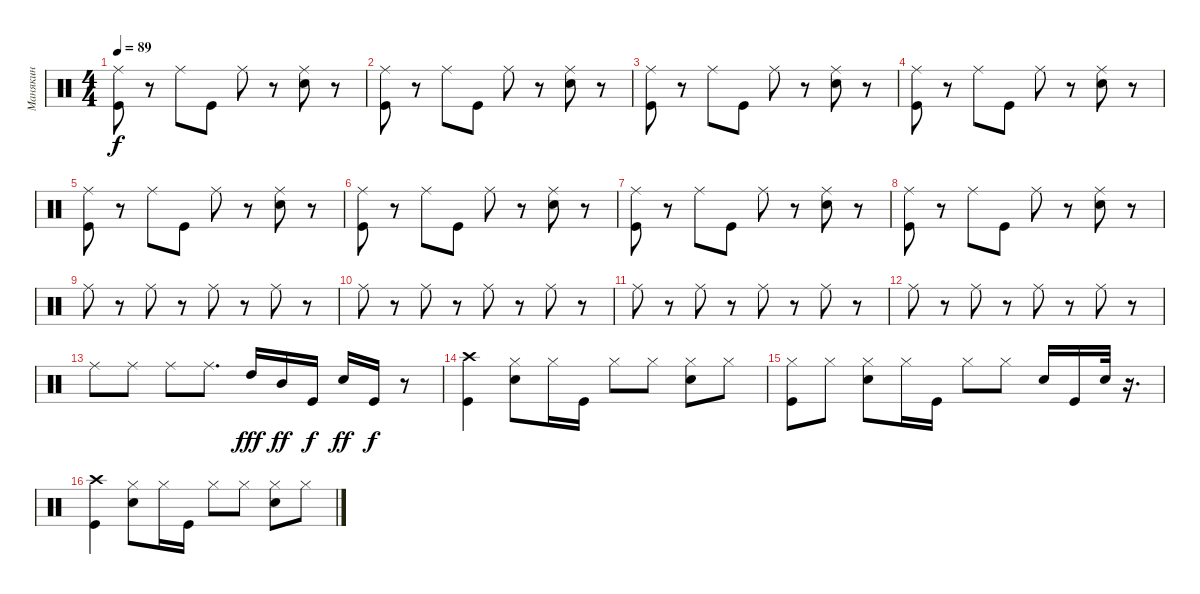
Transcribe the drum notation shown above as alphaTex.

\track ("Манякин" "Манякин") {instrument percussion}
\staff {score}
\articulation defaults
\ts (4 4)
\tempo 89
\clef neutral
\ks c
("Kick (hit)" "Ride (middle)").8{dy f} r.8 "Ride (middle)".8 "Kick (hit)".8 "Ride (middle)".8 r.8 ("Electric Snare (hit)" "Ride (middle)").8 r.8 |
("Kick (hit)" "Ride (middle)").8 r.8 "Ride (middle)".8 "Kick (hit)".8 "Ride (middle)".8 r.8 ("Ride (middle)" "Electric Snare (hit)").8 r.8 |
("Kick (hit)" "Ride (middle)").8 r.8 "Ride (middle)".8 "Kick (hit)".8 "Ride (middle)".8 r.8 ("Ride (middle)" "Electric Snare (hit)").8 r.8 |
("Ride (middle)" "Kick (hit)").8 r.8 "Ride (middle)".8 "Kick (hit)".8 "Ride (middle)".8 r.8 ("Ride (middle)" "Electric Snare (hit)").8 r.8 |
("Kick (hit)" "Ride (middle)").8 r.8 "Ride (middle)".8 "Kick (hit)".8 "Ride (middle)".8 r.8 ("Ride (middle)" "Electric Snare (hit)").8 r.8 |
("Ride (middle)" "Kick (hit)").8 r.8 "Ride (middle)".8 "Kick (hit)".8 "Ride (middle)".8 r.8 ("Ride (middle)" "Electric Snare (hit)").8 r.8 |
("Ride (middle)" "Kick (hit)").8 r.8 "Ride (middle)".8 "Kick (hit)".8 "Ride (middle)".8 r.8 ("Ride (middle)" "Electric Snare (hit)").8 r.8 |
("Ride (middle)" "Kick (hit)").8 r.8 "Ride (middle)".8 "Kick (hit)".8 "Ride (middle)".8 r.8 ("Electric Snare (hit)" "Ride (middle)").8 r.8 |
"Ride (middle)".8 r.8 "Ride (middle)".8 r.8 "Ride (middle)".8 r.8 "Ride (middle)".8 r.8 |
"Ride (middle)".8 r.8 "Ride (middle)".8 r.8 "Ride (middle)".8 r.8 "Ride (middle)".8 r.8 |
"Ride (middle)".8 r.8 "Ride (middle)".8 r.8 "Ride (middle)".8 r.8 "Ride (middle)".8 r.8 |
"Ride (middle)".8 r.8 "Ride (middle)".8 r.8 "Ride (middle)".8 r.8 "Ride (middle)".8 r.8 |
"Ride (middle)".8 "Ride (middle)".8 "Ride (middle)".8 "Ride (middle)".8{d} "High Tom (hit)".16{dy fff} "Mid Tom (hit)".16{dy ff} "Kick (hit)".16{dy f} "Electric Snare (hit)".16{dy ff} "Kick (hit)".16{dy f} r.8 |
("Crash high (hit)" "Kick (hit)").4 ("Electric Snare (hit)" "Hi-Hat (closed)").8 "Hi-Hat (closed)".16 "Kick (hit)".16 "Hi-Hat (closed)".8 "Hi-Hat (closed)".8 ("Electric Snare (hit)" "Hi-Hat (closed)").8 "Hi-Hat (closed)".8 |
("Kick (hit)" "Hi-Hat (closed)").8 "Hi-Hat (closed)".8 ("Hi-Hat (closed)" "Electric Snare (hit)").8 "Hi-Hat (closed)".16 "Kick (hit)".16 "Hi-Hat (closed)".8 "Hi-Hat (closed)".8 "Electric Snare (hit)".16 "Kick (hit)".16 "Electric Snare (hit)".32 r.16{d} |
("Crash high (hit)" "Kick (hit)").4 ("Hi-Hat (closed)" "Electric Snare (hit)").8 "Hi-Hat (closed)".16 "Kick (hit)".16 "Hi-Hat (closed)".8 "Hi-Hat (closed)".8 ("Hi-Hat (closed)" "Electric Snare (hit)").8 "Hi-Hat (closed)".8
